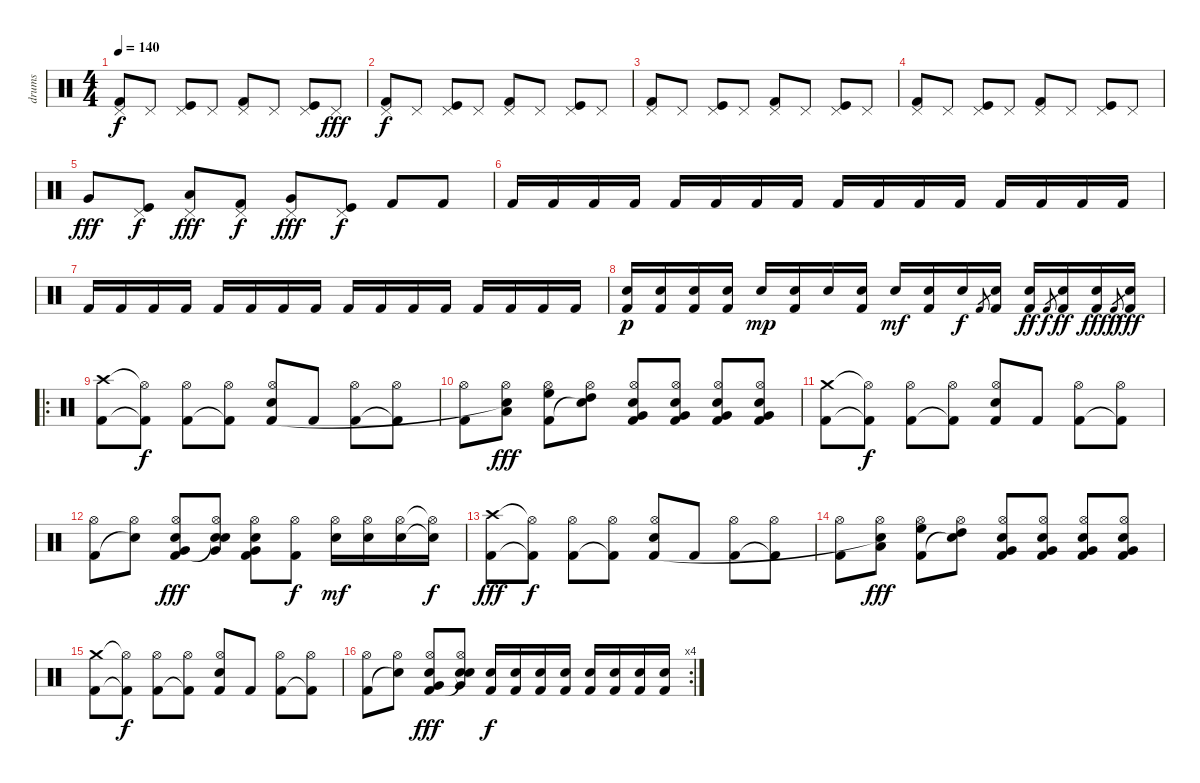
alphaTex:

\track ("drums" "drums") {instrument percussion}
\staff {score}
\articulation defaults
\ts (4 4)
\tempo 140
\clef neutral
\ks c
("Pedal Hi-Hat (hit)" "Kick (hit) 2").8{dy f} "Pedal Hi-Hat (hit)".8 ("Pedal Hi-Hat (hit)" "Kick (hit)").8 "Pedal Hi-Hat (hit)".8 ("Pedal Hi-Hat (hit)" "Kick (hit) 2").8 "Pedal Hi-Hat (hit)".8 ("Pedal Hi-Hat (hit)" "Kick (hit)").8 "Pedal Hi-Hat (hit)".8{dy fff} |
("Pedal Hi-Hat (hit)" "Kick (hit) 2").8{dy f} "Pedal Hi-Hat (hit)".8 ("Pedal Hi-Hat (hit)" "Kick (hit)").8 "Pedal Hi-Hat (hit)".8 ("Pedal Hi-Hat (hit)" "Kick (hit) 2").8 "Pedal Hi-Hat (hit)".8 ("Pedal Hi-Hat (hit)" "Kick (hit)").8 "Pedal Hi-Hat (hit)".8 |
("Pedal Hi-Hat (hit)" "Kick (hit) 2").8 "Pedal Hi-Hat (hit)".8 ("Pedal Hi-Hat (hit)" "Kick (hit)").8 "Pedal Hi-Hat (hit)".8 ("Pedal Hi-Hat (hit)" "Kick (hit) 2").8 "Pedal Hi-Hat (hit)".8 ("Pedal Hi-Hat (hit)" "Kick (hit)").8 "Pedal Hi-Hat (hit)".8 |
("Pedal Hi-Hat (hit)" "Kick (hit) 2").8 "Pedal Hi-Hat (hit)".8 ("Pedal Hi-Hat (hit)" "Kick (hit)").8 "Pedal Hi-Hat (hit)".8 ("Pedal Hi-Hat (hit)" "Kick (hit) 2").8 "Pedal Hi-Hat (hit)".8 ("Pedal Hi-Hat (hit)" "Kick (hit)").8 "Pedal Hi-Hat (hit)".8 |
"Very Low Tom (hit)".8{dy fff} ("Pedal Hi-Hat (hit)" "Kick (hit)").8{dy f} ("Pedal Hi-Hat (hit)" "Low Tom (hit)").8{dy fff} ("Pedal Hi-Hat (hit)" "Kick (hit) 2").8{dy f} ("Pedal Hi-Hat (hit)" "Very Low Tom (hit)").8{dy fff} ("Pedal Hi-Hat (hit)" "Kick (hit)").8{dy f} "Kick (hit) 2".8 "Kick (hit) 2".8 |
"Kick (hit) 2".16 "Kick (hit) 2".16 "Kick (hit) 2".16 "Kick (hit) 2".16 "Kick (hit) 2".16 "Kick (hit) 2".16 "Kick (hit) 2".16 "Kick (hit) 2".16 "Kick (hit) 2".16 "Kick (hit) 2".16 "Kick (hit) 2".16 "Kick (hit) 2".16 "Kick (hit) 2".16 "Kick (hit) 2".16 "Kick (hit) 2".16 "Kick (hit) 2".16 |
"Kick (hit) 2".16 "Kick (hit) 2".16 "Kick (hit) 2".16 "Kick (hit) 2".16 "Kick (hit) 2".16 "Kick (hit) 2".16 "Kick (hit) 2".16 "Kick (hit) 2".16 "Kick (hit) 2".16 "Kick (hit) 2".16 "Kick (hit) 2".16 "Kick (hit) 2".16 "Kick (hit) 2".16 "Kick (hit) 2".16 "Kick (hit) 2".16 "Kick (hit) 2".16 |
("Kick (hit) 2" "Snare (hit) 2").16{dy p} ("Kick (hit) 2" "Snare (hit) 2").16 ("Kick (hit) 2" "Snare (hit) 2").16 ("Kick (hit) 2" "Snare (hit) 2").16 "Snare (hit) 2".16{dy mp} ("Kick (hit) 2" "Snare (hit) 2").16 "Snare (hit) 2".16 ("Kick (hit) 2" "Snare (hit) 2").16 "Snare (hit) 2".16{dy mf} ("Kick (hit) 2" "Snare (hit) 2").16 "Snare (hit) 2".16{dy f} "Kick (hit) 2".8{gr} ("Kick (hit) 2" "Snare (hit) 2").16 ("Kick (hit) 2" "Snare (hit) 2").16{dy ff} "Kick (hit) 2".8{gr dy f} ("Kick (hit) 2" "Snare (hit) 2").16{dy ff} ("Kick (hit) 2" "Snare (hit) 2").16{dy fff} "Kick (hit) 2".8{gr dy f} ("Kick (hit) 2" "Snare (hit) 2").16{dy fff} |
\ro
("Crash high (hit)" "Kick (hit) 2").8 ("Hi-Hat (open)"{t} "Kick (hit) 2"{t}).8{dy f} ("Hi-Hat (open)" "Kick (hit) 2").8 ("Hi-Hat (open)" "Kick (hit) 2"{t}).8 ("Hi-Hat (open)" "Electric Snare (hit)" "Kick (hit) 2").8 "Kick (hit) 2".8 ("Hi-Hat (open)" "Kick (hit) 2").8 ("Hi-Hat (open)" "Kick (hit) 2"{t}).8 |
("Hi-Hat (open)" "Kick (hit) 2").8 ("Hi-Hat (open)" "Low Tom (hit)" "Snare (hit)"{t}).8{dy fff} ("Hi-Hat (open)" "High Floor Tom (hit)" "Kick (hit) 2").8 ("Hi-Hat (open)" "High Tom (hit)" "Snare (hit)"{t}).8 ("Hi-Hat (open)" "Very Low Tom (hit)" "Electric Snare (hit)" "Kick (hit) 2").8 ("Hi-Hat (open)" "Very Low Tom (hit)" "Electric Snare (hit)" "Kick (hit) 2").8 ("Hi-Hat (open)" "Very Low Tom (hit)" "Electric Snare (hit)" "Kick (hit) 2").8 ("Hi-Hat (open)" "Very Low Tom (hit)" "Electric Snare (hit)" "Kick (hit) 2").8 |
("Crash medium (hit)" "Kick (hit) 2").8 ("Hi-Hat (open)"{t} "Kick (hit) 2"{t}).8{dy f} ("Hi-Hat (open)" "Kick (hit) 2").8 ("Hi-Hat (open)" "Kick (hit) 2"{t}).8 ("Hi-Hat (open)" "Electric Snare (hit)" "Kick (hit) 2").8 "Kick (hit) 2".8 ("Hi-Hat (open)" "Kick (hit) 2").8 ("Hi-Hat (open)" "Kick (hit) 2"{t}).8 |
("Hi-Hat (open)" "Kick (hit) 2").8 ("Hi-Hat (open)" "Snare (hit)"{t}).8 ("Hi-Hat (open)" "Very Low Tom (hit)" "Electric Snare (hit)" "Kick (hit) 2").8{dy fff} ("Hi-Hat (open)" "Very Low Tom (hit)" "Electric Snare (hit)" "Snare (hit)"{t}).8 ("Hi-Hat (open)" "Very Low Tom (hit)" "Electric Snare (hit)" "Kick (hit) 2").8 ("Hi-Hat (open)" "Kick (hit) 2").8{dy f} ("Hi-Hat (open)" "Electric Snare (hit)").16{dy mf} ("Hi-Hat (open)" "Electric Snare (hit)").16 ("Hi-Hat (open)" "Electric Snare (hit)").16 ("Hi-Hat (open)"{t} "Electric Snare (hit)"{t}).16{dy f} |
("Crash high (hit)" "Kick (hit) 2").8{dy fff} ("Hi-Hat (open)"{t} "Kick (hit) 2"{t}).8{dy f} ("Hi-Hat (open)" "Kick (hit) 2").8 ("Hi-Hat (open)" "Kick (hit) 2"{t}).8 ("Hi-Hat (open)" "Electric Snare (hit)" "Kick (hit) 2").8 "Kick (hit) 2".8 ("Hi-Hat (open)" "Kick (hit) 2").8 ("Hi-Hat (open)" "Kick (hit) 2"{t}).8 |
("Hi-Hat (open)" "Kick (hit) 2").8 ("Hi-Hat (open)" "Low Tom (hit)" "Snare (hit)"{t}).8{dy fff} ("Hi-Hat (open)" "High Floor Tom (hit)" "Kick (hit) 2").8 ("Hi-Hat (open)" "High Tom (hit)" "Snare (hit)"{t}).8 ("Hi-Hat (open)" "Very Low Tom (hit)" "Electric Snare (hit)" "Kick (hit) 2").8 ("Hi-Hat (open)" "Very Low Tom (hit)" "Electric Snare (hit)" "Kick (hit) 2").8 ("Hi-Hat (open)" "Very Low Tom (hit)" "Electric Snare (hit)" "Kick (hit) 2").8 ("Hi-Hat (open)" "Very Low Tom (hit)" "Electric Snare (hit)" "Kick (hit) 2").8 |
("Crash medium (hit)" "Kick (hit) 2").8 ("Hi-Hat (open)"{t} "Kick (hit) 2"{t}).8{dy f} ("Hi-Hat (open)" "Kick (hit) 2").8 ("Hi-Hat (open)" "Kick (hit) 2"{t}).8 ("Hi-Hat (open)" "Electric Snare (hit)" "Kick (hit) 2").8 "Kick (hit) 2".8 ("Hi-Hat (open)" "Kick (hit) 2").8 ("Hi-Hat (open)" "Kick (hit) 2"{t}).8 |
\rc 4
("Hi-Hat (open)" "Kick (hit) 2").8 ("Hi-Hat (open)" "Snare (hit)"{t}).8 ("Hi-Hat (open)" "Very Low Tom (hit)" "Electric Snare (hit)" "Kick (hit) 2").8{dy fff} ("Hi-Hat (open)" "Very Low Tom (hit)" "Electric Snare (hit)" "Snare (hit)"{t}).8 ("Electric Snare (hit)" "Kick (hit) 2").16{dy f} ("Electric Snare (hit)" "Kick (hit) 2").16 ("Electric Snare (hit)" "Kick (hit) 2").16 ("Electric Snare (hit)" "Kick (hit) 2").16 ("Electric Snare (hit)" "Kick (hit) 2").16 ("Electric Snare (hit)" "Kick (hit) 2").16 ("Electric Snare (hit)" "Kick (hit) 2").16 ("Electric Snare (hit)" "Kick (hit) 2").16
